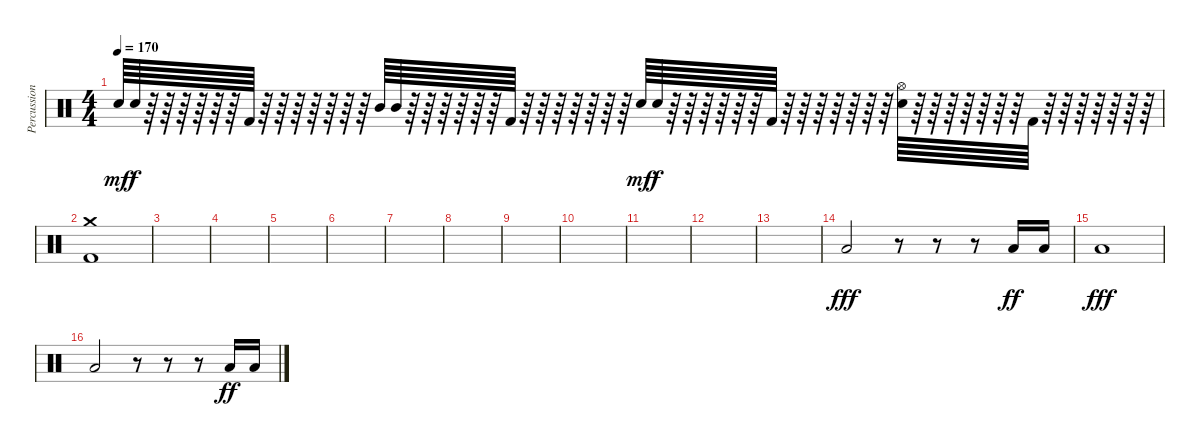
\track ("Percussions" "Percussion") {instrument percussion}
\staff {score}
\articulation defaults
\ts (4 4)
\tempo 170
\clef neutral
\ks c "Electric Snare (hit)".64{dy mf} "Electric Snare (hit)".64{dy f}
r.64 r.64 r.64 r.64 r.64 r.64 "Kick (hit) 2".64 r.64 r.64 r.64 r.64 r.64 r.64 r.64 "Mid Tom (hit)".64 "Mid Tom (hit)".64 r.64 r.64 r.64 r.64 r.64 r.64 "Kick (hit) 2".64 r.64 r.64 r.64 r.64 r.64 r.64 r.64 "Electric Snare (hit)".64{dy mf} "Electric Snare (hit)".64{dy f} r.64 r.64 r.64 r.64 r.64 r.64 "Kick (hit) 2".64 r.64 r.64 r.64 r.64 r.64 r.64 r.64 ("Electric Snare (hit)" "Hi-Hat (open)").64 r.64 r.64 r.64 r.64 r.64 r.64 r.64 "Kick (hit) 2".64 r.64 r.64 r.64 r.64 r.64 r.64 r.64 |
("Kick (hit) 2" "Crash medium (hit)").1 |
|
|
|
|
|
|
|
|
|
|
|
"Low Floor Tom (hit)".2{dy fff} r.8 r.8 r.8 "Low Floor Tom (hit)".16{dy ff} "Low Floor Tom (hit)".16 |
"Low Floor Tom (hit)".1{dy fff} |
"Low Floor Tom (hit)".2 r.8 r.8 r.8 "Low Floor Tom (hit)".16{dy ff} "Low Floor Tom (hit)".16
